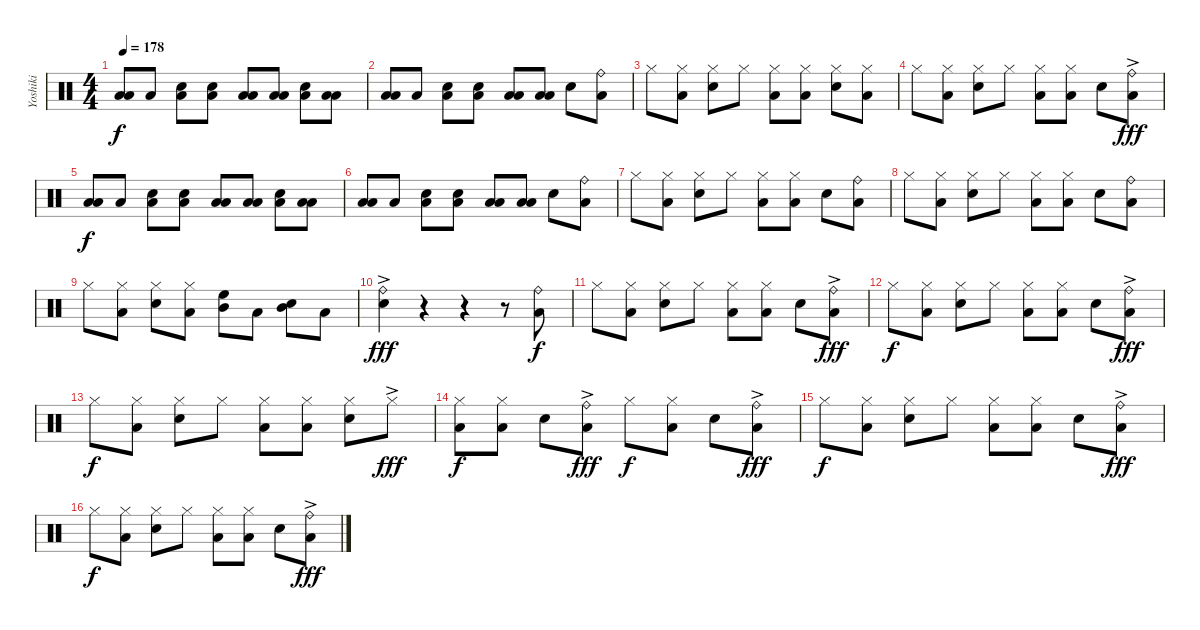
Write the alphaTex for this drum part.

\track ("Yoshiki" "Yoshiki") {instrument percussion}
\staff {score}
\articulation defaults
\ts (4 4)
\tempo 178
\clef neutral
\ks c
("Low Tom (hit)" "Low Floor Tom (hit)").8{dy f} "Low Tom (hit)".8 ("Low Tom (hit)" "Snare (hit) 2").8 ("Low Tom (hit)" "Snare (hit) 2").8 ("Low Tom (hit)" "Low Floor Tom (hit)").8 ("Low Tom (hit)" "Low Floor Tom (hit)").8 ("Low Tom (hit)" "Snare (hit) 2").8 ("Low Tom (hit)" "Low Floor Tom (hit)").8 |
("Low Tom (hit)" "Low Floor Tom (hit)").8 "Low Tom (hit)".8 ("Low Tom (hit)" "Snare (hit) 2").8 ("Low Tom (hit)" "Snare (hit) 2").8 ("Low Tom (hit)" "Low Floor Tom (hit)").8 ("Low Tom (hit)" "Low Floor Tom (hit)").8 "Snare (hit) 2".8 ("Ride (bell)" "Low Floor Tom (hit)").8 |
"Hi-Hat (closed)".8 ("Hi-Hat (closed)" "Low Floor Tom (hit)").8 ("Hi-Hat (closed)" "Snare (hit) 2").8 "Hi-Hat (closed)".8 ("Hi-Hat (closed)" "Low Floor Tom (hit)").8 ("Hi-Hat (closed)" "Low Floor Tom (hit)").8 ("Hi-Hat (closed)" "Snare (hit) 2").8 ("Hi-Hat (closed)" "Low Floor Tom (hit)").8 |
"Hi-Hat (closed)".8 ("Hi-Hat (closed)" "Low Floor Tom (hit)").8 ("Hi-Hat (closed)" "Snare (hit) 2").8 "Hi-Hat (closed)".8 ("Hi-Hat (closed)" "Low Floor Tom (hit)").8 ("Hi-Hat (closed)" "Low Floor Tom (hit)").8 "Snare (hit) 2".8 ("Ride (bell)"{ac} "Low Floor Tom (hit)").8{dy fff} |
("Low Tom (hit)" "Low Floor Tom (hit)").8{dy f} "Low Tom (hit)".8 ("Low Tom (hit)" "Snare (hit) 2").8 ("Low Tom (hit)" "Snare (hit) 2").8 ("Low Tom (hit)" "Low Floor Tom (hit)").8 ("Low Tom (hit)" "Low Floor Tom (hit)").8 ("Low Tom (hit)" "Snare (hit) 2").8 ("Low Tom (hit)" "Low Floor Tom (hit)").8 |
("Low Tom (hit)" "Low Floor Tom (hit)").8 "Low Tom (hit)".8 ("Low Tom (hit)" "Snare (hit) 2").8 ("Low Tom (hit)" "Snare (hit) 2").8 ("Low Tom (hit)" "Low Floor Tom (hit)").8 ("Low Tom (hit)" "Low Floor Tom (hit)").8 "Snare (hit) 2".8 ("Ride (bell)" "Low Floor Tom (hit)").8 |
"Hi-Hat (closed)".8 ("Hi-Hat (closed)" "Low Floor Tom (hit)").8 ("Hi-Hat (closed)" "Snare (hit) 2").8 "Hi-Hat (closed)".8 ("Hi-Hat (closed)" "Low Floor Tom (hit)").8 ("Hi-Hat (closed)" "Low Floor Tom (hit)").8 "Snare (hit) 2".8 ("Ride (bell)" "Low Floor Tom (hit)").8 |
"Hi-Hat (closed)".8 ("Hi-Hat (closed)" "Low Floor Tom (hit)").8 ("Hi-Hat (closed)" "Snare (hit) 2").8 "Hi-Hat (closed)".8 ("Hi-Hat (closed)" "Low Floor Tom (hit)").8 ("Hi-Hat (closed)" "Low Floor Tom (hit)").8 "Snare (hit) 2".8 ("Ride (bell)" "Low Floor Tom (hit)").8 |
"Hi-Hat (closed)".8 ("Hi-Hat (closed)" "Low Floor Tom (hit)").8 ("Hi-Hat (closed)" "Snare (hit) 2").8 ("Hi-Hat (closed)" "Low Floor Tom (hit)").8 ("High Floor Tom (hit)" "Mid Tom (hit)").8 "Low Floor Tom (hit)".8 ("Mid Tom (hit)" "Snare (hit) 2").8 "Low Floor Tom (hit)".8 |
("Ride (bell)"{ac} "Snare (hit) 2").4{dy fff} r.4 r.4 r.8 ("Ride (bell)" "Low Floor Tom (hit)").8{dy f} |
"Hi-Hat (closed)".8 ("Hi-Hat (closed)" "Low Floor Tom (hit)").8 ("Hi-Hat (closed)" "Snare (hit) 2").8 "Hi-Hat (closed)".8 ("Hi-Hat (closed)" "Low Floor Tom (hit)").8 ("Hi-Hat (closed)" "Low Floor Tom (hit)").8 "Snare (hit) 2".8 ("Ride (bell)"{ac} "Low Floor Tom (hit)").8{dy fff} |
"Hi-Hat (closed)".8{dy f} ("Hi-Hat (closed)" "Low Floor Tom (hit)").8 ("Hi-Hat (closed)" "Snare (hit) 2").8 "Hi-Hat (closed)".8 ("Hi-Hat (closed)" "Low Floor Tom (hit)").8 ("Hi-Hat (closed)" "Low Floor Tom (hit)").8 "Snare (hit) 2".8 ("Ride (bell)"{ac} "Low Floor Tom (hit)").8{dy fff} |
"Hi-Hat (closed)".8{dy f} ("Hi-Hat (closed)" "Low Floor Tom (hit)").8 ("Hi-Hat (closed)" "Snare (hit) 2").8 "Hi-Hat (closed)".8 ("Hi-Hat (closed)" "Low Floor Tom (hit)").8 ("Hi-Hat (closed)" "Low Floor Tom (hit)").8 ("Hi-Hat (closed)" "Snare (hit) 2").8 "Hi-Hat (closed)"{ac}.8{dy fff} |
("Hi-Hat (closed)" "Low Floor Tom (hit)").8{dy f} ("Hi-Hat (closed)" "Low Floor Tom (hit)").8 "Snare (hit) 2".8 ("Ride (bell)"{ac} "Low Floor Tom (hit)").8{dy fff} "Hi-Hat (closed)".8{dy f} ("Hi-Hat (closed)" "Low Floor Tom (hit)").8 "Snare (hit) 2".8 ("Ride (bell)"{ac} "Low Floor Tom (hit)").8{dy fff} |
"Hi-Hat (closed)".8{dy f} ("Hi-Hat (closed)" "Low Floor Tom (hit)").8 ("Hi-Hat (closed)" "Snare (hit) 2").8 "Hi-Hat (closed)".8 ("Hi-Hat (closed)" "Low Floor Tom (hit)").8 ("Hi-Hat (closed)" "Low Floor Tom (hit)").8 "Snare (hit) 2".8 ("Ride (bell)"{ac} "Low Floor Tom (hit)").8{dy fff} |
"Hi-Hat (closed)".8{dy f} ("Hi-Hat (closed)" "Low Floor Tom (hit)").8 ("Hi-Hat (closed)" "Snare (hit) 2").8 "Hi-Hat (closed)".8 ("Hi-Hat (closed)" "Low Floor Tom (hit)").8 ("Hi-Hat (closed)" "Low Floor Tom (hit)").8 "Snare (hit) 2".8 ("Ride (bell)"{ac} "Low Floor Tom (hit)").8{dy fff}
